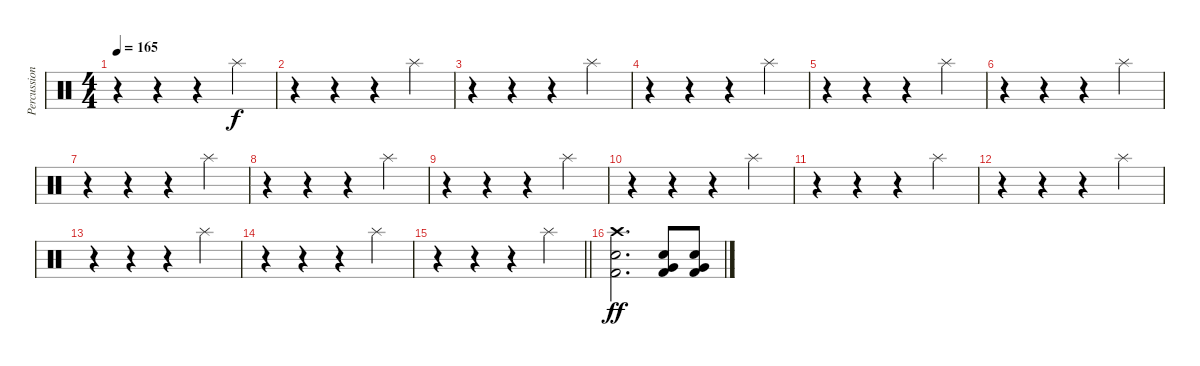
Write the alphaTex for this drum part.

\track ("Percussion" "Percussion") {instrument percussion}
\staff {score}
\articulation defaults
\ts (4 4)
\tempo 165
\clef neutral
\ks c
r.4{dy f} r.4 r.4 "Splash (hit)".4 |
r.4 r.4 r.4 "Splash (hit)".4 |
r.4 r.4 r.4 "Splash (hit)".4 |
r.4 r.4 r.4 "Splash (hit)".4 |
r.4 r.4 r.4 "Splash (hit)".4 |
r.4 r.4 r.4 "Splash (hit)".4 |
r.4 r.4 r.4 "Splash (hit)".4 |
r.4 r.4 r.4 "Splash (hit)".4 |
r.4 r.4 r.4 "Splash (hit)".4 |
r.4 r.4 r.4 "Splash (hit)".4 |
r.4 r.4 r.4 "Splash (hit)".4 |
r.4 r.4 r.4 "Splash (hit)".4 |
r.4 r.4 r.4 "Splash (hit)".4 |
r.4 r.4 r.4 "Splash (hit)".4 |
\barLineRight lightlight
r.4 r.4 r.4 "Splash (hit)".4 |
\section ("" "")
("Crash high (hit)" "Snare (hit) 2" "Kick (hit) 2").2{d dy ff} ("Very Low Tom (hit)" "Snare (hit) 2" "Kick (hit) 2").8 ("Very Low Tom (hit)" "Snare (hit) 2" "Kick (hit) 2").8
